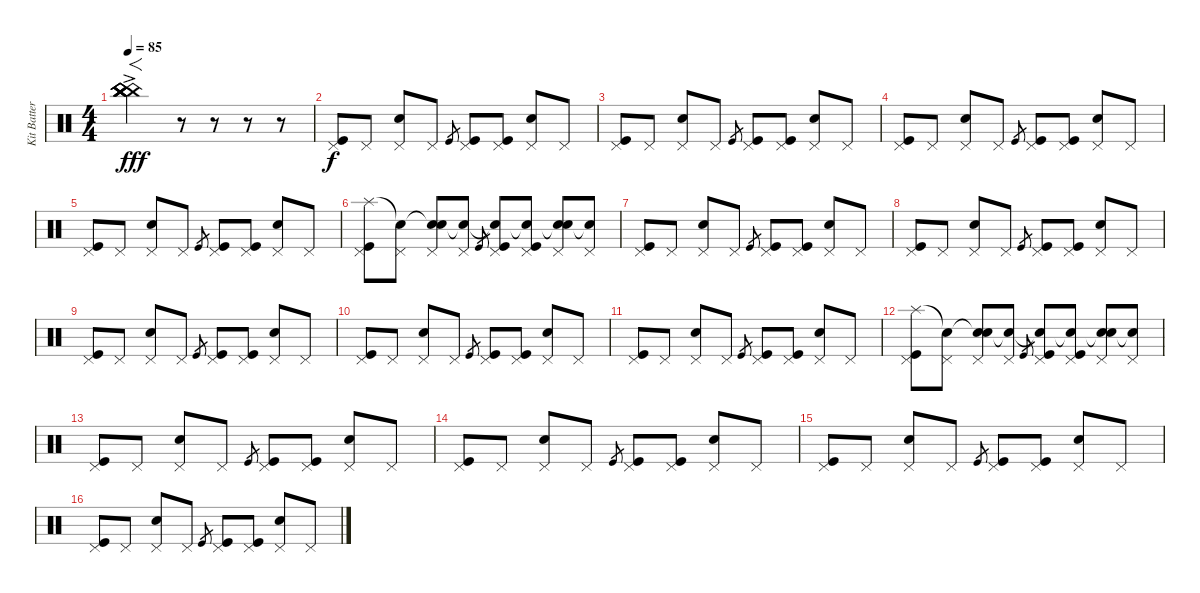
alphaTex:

\track ("Kit Batterie 1" "Kit Batter") {instrument percussion}
\staff {score}
\articulation defaults
\ts (4 4)
\tempo 85
\clef neutral
\ks c
("China (hit)"{ac} "China (hit)"{ac} "China (hit)"{ac} "China (hit)"{ac} "China (hit)"{ac} "China (hit)"{ac}).2{f dy fff} r.8 r.8 r.8 r.8 |
("Pedal Hi-Hat (hit)" "Kick (hit)").8{dy f} "Pedal Hi-Hat (hit)".8 ("Pedal Hi-Hat (hit)" "Electric Snare (hit)").8 "Pedal Hi-Hat (hit)".8 "Kick (hit)".8{gr} ("Pedal Hi-Hat (hit)" "Kick (hit)").8 ("Pedal Hi-Hat (hit)" "Kick (hit)").8 ("Pedal Hi-Hat (hit)" "Electric Snare (hit)").8 "Pedal Hi-Hat (hit)".8 |
("Pedal Hi-Hat (hit)" "Kick (hit)").8 "Pedal Hi-Hat (hit)".8 ("Pedal Hi-Hat (hit)" "Electric Snare (hit)").8 "Pedal Hi-Hat (hit)".8 "Kick (hit)".8{gr} ("Pedal Hi-Hat (hit)" "Kick (hit)").8 ("Pedal Hi-Hat (hit)" "Kick (hit)").8 ("Pedal Hi-Hat (hit)" "Electric Snare (hit)").8 "Pedal Hi-Hat (hit)".8 |
("Pedal Hi-Hat (hit)" "Kick (hit)").8 "Pedal Hi-Hat (hit)".8 ("Pedal Hi-Hat (hit)" "Electric Snare (hit)").8 "Pedal Hi-Hat (hit)".8 "Kick (hit)".8{gr} ("Pedal Hi-Hat (hit)" "Kick (hit)").8 ("Pedal Hi-Hat (hit)" "Kick (hit)").8 ("Pedal Hi-Hat (hit)" "Electric Snare (hit)").8 "Pedal Hi-Hat (hit)".8 |
("Pedal Hi-Hat (hit)" "Kick (hit)").8 "Pedal Hi-Hat (hit)".8 ("Pedal Hi-Hat (hit)" "Electric Snare (hit)").8 "Pedal Hi-Hat (hit)".8 "Kick (hit)".8{gr} ("Pedal Hi-Hat (hit)" "Kick (hit)").8 ("Pedal Hi-Hat (hit)" "Kick (hit)").8 ("Pedal Hi-Hat (hit)" "Electric Snare (hit)").8 "Pedal Hi-Hat (hit)".8 |
("Pedal Hi-Hat (hit)" "Splash (hit)" "Kick (hit)").8 ("Pedal Hi-Hat (hit)" "Snare (hit)"{t}).8 ("Pedal Hi-Hat (hit)" "Snare (hit)"{t} "Electric Snare (hit)").8 ("Pedal Hi-Hat (hit)" "Snare (hit)"{t}).8 "Kick (hit)".8{gr} ("Pedal Hi-Hat (hit)" "Snare (hit)"{t} "Kick (hit)").8 ("Pedal Hi-Hat (hit)" "Snare (hit)"{t} "Kick (hit)").8 ("Pedal Hi-Hat (hit)" "Snare (hit)"{t} "Electric Snare (hit)").8 ("Pedal Hi-Hat (hit)" "Snare (hit)"{t}).8 |
("Pedal Hi-Hat (hit)" "Kick (hit)").8 "Pedal Hi-Hat (hit)".8 ("Pedal Hi-Hat (hit)" "Electric Snare (hit)").8 "Pedal Hi-Hat (hit)".8 "Kick (hit)".8{gr} ("Pedal Hi-Hat (hit)" "Kick (hit)").8 ("Pedal Hi-Hat (hit)" "Kick (hit)").8 ("Pedal Hi-Hat (hit)" "Electric Snare (hit)").8 "Pedal Hi-Hat (hit)".8 |
("Pedal Hi-Hat (hit)" "Kick (hit)").8 "Pedal Hi-Hat (hit)".8 ("Pedal Hi-Hat (hit)" "Electric Snare (hit)").8 "Pedal Hi-Hat (hit)".8 "Kick (hit)".8{gr} ("Pedal Hi-Hat (hit)" "Kick (hit)").8 ("Pedal Hi-Hat (hit)" "Kick (hit)").8 ("Pedal Hi-Hat (hit)" "Electric Snare (hit)").8 "Pedal Hi-Hat (hit)".8 |
("Pedal Hi-Hat (hit)" "Kick (hit)").8 "Pedal Hi-Hat (hit)".8 ("Pedal Hi-Hat (hit)" "Electric Snare (hit)").8 "Pedal Hi-Hat (hit)".8 "Kick (hit)".8{gr} ("Pedal Hi-Hat (hit)" "Kick (hit)").8 ("Pedal Hi-Hat (hit)" "Kick (hit)").8 ("Pedal Hi-Hat (hit)" "Electric Snare (hit)").8 "Pedal Hi-Hat (hit)".8 |
("Pedal Hi-Hat (hit)" "Kick (hit)").8 "Pedal Hi-Hat (hit)".8 ("Pedal Hi-Hat (hit)" "Electric Snare (hit)").8 "Pedal Hi-Hat (hit)".8 "Kick (hit)".8{gr} ("Pedal Hi-Hat (hit)" "Kick (hit)").8 ("Pedal Hi-Hat (hit)" "Kick (hit)").8 ("Pedal Hi-Hat (hit)" "Electric Snare (hit)").8 "Pedal Hi-Hat (hit)".8 |
("Pedal Hi-Hat (hit)" "Kick (hit)").8 "Pedal Hi-Hat (hit)".8 ("Pedal Hi-Hat (hit)" "Electric Snare (hit)").8 "Pedal Hi-Hat (hit)".8 "Kick (hit)".8{gr} ("Pedal Hi-Hat (hit)" "Kick (hit)").8 ("Pedal Hi-Hat (hit)" "Kick (hit)").8 ("Pedal Hi-Hat (hit)" "Electric Snare (hit)").8 "Pedal Hi-Hat (hit)".8 |
("Pedal Hi-Hat (hit)" "Splash (hit)" "Kick (hit)").8 ("Pedal Hi-Hat (hit)" "Snare (hit)"{t}).8 ("Pedal Hi-Hat (hit)" "Snare (hit)"{t} "Electric Snare (hit)").8 ("Pedal Hi-Hat (hit)" "Snare (hit)"{t}).8 "Kick (hit)".8{gr} ("Pedal Hi-Hat (hit)" "Snare (hit)"{t} "Kick (hit)").8 ("Pedal Hi-Hat (hit)" "Snare (hit)"{t} "Kick (hit)").8 ("Pedal Hi-Hat (hit)" "Snare (hit)"{t} "Electric Snare (hit)").8 ("Pedal Hi-Hat (hit)" "Snare (hit)"{t}).8 |
("Pedal Hi-Hat (hit)" "Kick (hit)").8 "Pedal Hi-Hat (hit)".8 ("Pedal Hi-Hat (hit)" "Electric Snare (hit)").8 "Pedal Hi-Hat (hit)".8 "Kick (hit)".8{gr} ("Pedal Hi-Hat (hit)" "Kick (hit)").8 ("Pedal Hi-Hat (hit)" "Kick (hit)").8 ("Pedal Hi-Hat (hit)" "Electric Snare (hit)").8 "Pedal Hi-Hat (hit)".8 |
("Pedal Hi-Hat (hit)" "Kick (hit)").8 "Pedal Hi-Hat (hit)".8 ("Pedal Hi-Hat (hit)" "Electric Snare (hit)").8 "Pedal Hi-Hat (hit)".8 "Kick (hit)".8{gr} ("Pedal Hi-Hat (hit)" "Kick (hit)").8 ("Pedal Hi-Hat (hit)" "Kick (hit)").8 ("Pedal Hi-Hat (hit)" "Electric Snare (hit)").8 "Pedal Hi-Hat (hit)".8 |
("Pedal Hi-Hat (hit)" "Kick (hit)").8 "Pedal Hi-Hat (hit)".8 ("Pedal Hi-Hat (hit)" "Electric Snare (hit)").8 "Pedal Hi-Hat (hit)".8 "Kick (hit)".8{gr} ("Pedal Hi-Hat (hit)" "Kick (hit)").8 ("Pedal Hi-Hat (hit)" "Kick (hit)").8 ("Pedal Hi-Hat (hit)" "Electric Snare (hit)").8 "Pedal Hi-Hat (hit)".8 |
("Pedal Hi-Hat (hit)" "Kick (hit)").8 "Pedal Hi-Hat (hit)".8 ("Pedal Hi-Hat (hit)" "Electric Snare (hit)").8 "Pedal Hi-Hat (hit)".8 "Kick (hit)".8{gr} ("Pedal Hi-Hat (hit)" "Kick (hit)").8 ("Pedal Hi-Hat (hit)" "Kick (hit)").8 ("Pedal Hi-Hat (hit)" "Electric Snare (hit)").8 "Pedal Hi-Hat (hit)".8
